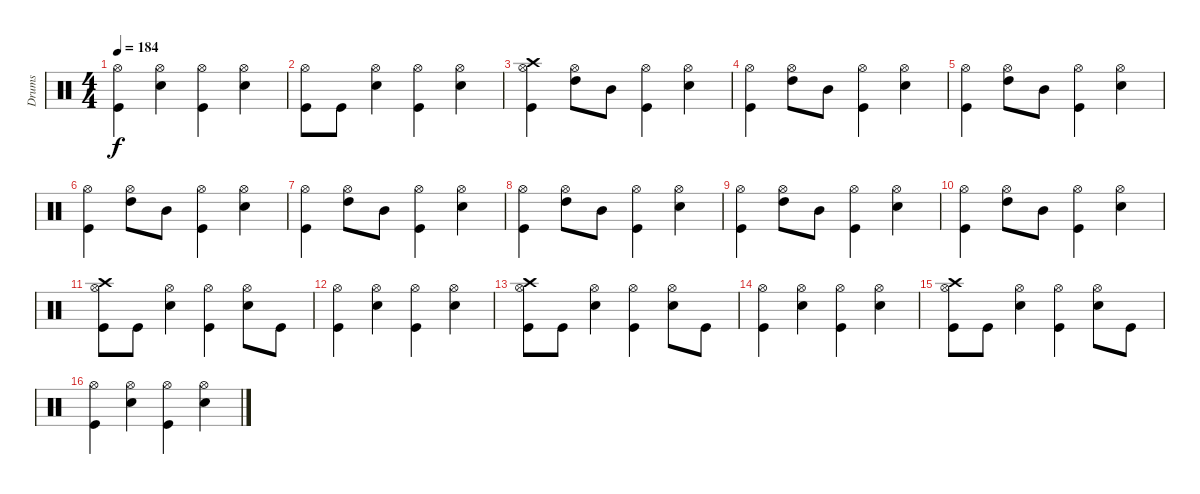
\track ("Drums" "Drums") {instrument percussion}
\staff {score}
\articulation defaults
\ts (4 4)
\tempo 184
\clef neutral
\ks c
("Hi-Hat (open)" "Kick (hit)").4{dy f} ("Hi-Hat (open)" "Electric Snare (hit)").4 ("Hi-Hat (open)" "Kick (hit)").4 ("Hi-Hat (open)" "Electric Snare (hit)").4 |
("Hi-Hat (open)" "Kick (hit)").8 "Kick (hit)".8 ("Hi-Hat (open)" "Electric Snare (hit)").4 ("Hi-Hat (open)" "Kick (hit)").4 ("Hi-Hat (open)" "Electric Snare (hit)").4 |
("Crash high (hit)" "Hi-Hat (open)" "Kick (hit)").4 ("Hi-Hat (open)" "High Tom (hit)").8 "Mid Tom (hit)".8 ("Hi-Hat (open)" "Kick (hit)").4 ("Hi-Hat (open)" "Electric Snare (hit)").4 |
("Hi-Hat (open)" "Kick (hit)").4 ("Hi-Hat (open)" "High Tom (hit)").8 "Mid Tom (hit)".8 ("Hi-Hat (open)" "Kick (hit)").4 ("Hi-Hat (open)" "Electric Snare (hit)").4 |
("Hi-Hat (open)" "Kick (hit)").4 ("Hi-Hat (open)" "High Tom (hit)").8 "Mid Tom (hit)".8 ("Hi-Hat (open)" "Kick (hit)").4 ("Hi-Hat (open)" "Electric Snare (hit)").4 |
("Hi-Hat (open)" "Kick (hit)").4 ("Hi-Hat (open)" "High Tom (hit)").8 "Mid Tom (hit)".8 ("Hi-Hat (open)" "Kick (hit)").4 ("Hi-Hat (open)" "Electric Snare (hit)").4 |
("Hi-Hat (open)" "Kick (hit)").4 ("Hi-Hat (open)" "High Tom (hit)").8 "Mid Tom (hit)".8 ("Hi-Hat (open)" "Kick (hit)").4 ("Hi-Hat (open)" "Electric Snare (hit)").4 |
("Hi-Hat (open)" "Kick (hit)").4 ("Hi-Hat (open)" "High Tom (hit)").8 "Mid Tom (hit)".8 ("Hi-Hat (open)" "Kick (hit)").4 ("Hi-Hat (open)" "Electric Snare (hit)").4 |
("Hi-Hat (open)" "Kick (hit)").4 ("Hi-Hat (open)" "High Tom (hit)").8 "Mid Tom (hit)".8 ("Hi-Hat (open)" "Kick (hit)").4 ("Hi-Hat (open)" "Electric Snare (hit)").4 |
("Hi-Hat (open)" "Kick (hit)").4 ("Hi-Hat (open)" "High Tom (hit)").8 "Mid Tom (hit)".8 ("Hi-Hat (open)" "Kick (hit)").4 ("Hi-Hat (open)" "Electric Snare (hit)").4 |
("Crash high (hit)" "Hi-Hat (open)" "Kick (hit)").8 "Kick (hit)".8 ("Hi-Hat (open)" "Electric Snare (hit)").4 ("Hi-Hat (open)" "Kick (hit)").4 ("Hi-Hat (open)" "Electric Snare (hit)").8 "Kick (hit)".8 |
("Hi-Hat (open)" "Kick (hit)").4 ("Hi-Hat (open)" "Electric Snare (hit)").4 ("Hi-Hat (open)" "Kick (hit)").4 ("Hi-Hat (open)" "Electric Snare (hit)").4 |
("Crash high (hit)" "Hi-Hat (open)" "Kick (hit)").8 "Kick (hit)".8 ("Hi-Hat (open)" "Electric Snare (hit)").4 ("Hi-Hat (open)" "Kick (hit)").4 ("Hi-Hat (open)" "Electric Snare (hit)").8 "Kick (hit)".8 |
("Hi-Hat (open)" "Kick (hit)").4 ("Hi-Hat (open)" "Electric Snare (hit)").4 ("Hi-Hat (open)" "Kick (hit)").4 ("Hi-Hat (open)" "Electric Snare (hit)").4 |
("Crash high (hit)" "Hi-Hat (open)" "Kick (hit)").8 "Kick (hit)".8 ("Hi-Hat (open)" "Electric Snare (hit)").4 ("Hi-Hat (open)" "Kick (hit)").4 ("Hi-Hat (open)" "Electric Snare (hit)").8 "Kick (hit)".8 |
("Hi-Hat (open)" "Kick (hit)").4 ("Hi-Hat (open)" "Electric Snare (hit)").4 ("Hi-Hat (open)" "Kick (hit)").4 ("Hi-Hat (open)" "Electric Snare (hit)").4
